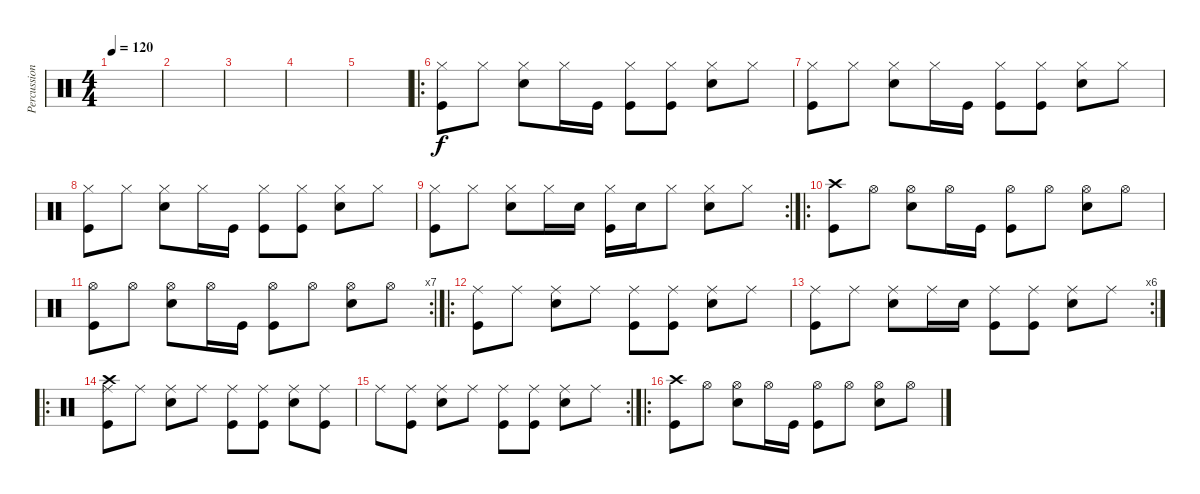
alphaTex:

\track ("Percussions" "Percussion") {instrument percussion}
\staff {score}
\articulation defaults
\ts (4 4)
\tempo 120
\clef neutral
\ks c
|
|
|
|
|
\ro
("Hi-Hat (closed)" "Kick (hit)").8 "Hi-Hat (closed)".8 ("Hi-Hat (closed)" "Electric Snare (hit)").8 "Hi-Hat (closed)".16 "Kick (hit)".16 ("Hi-Hat (closed)" "Kick (hit)").8 ("Hi-Hat (closed)" "Kick (hit)").8 ("Hi-Hat (closed)" "Electric Snare (hit)").8 "Hi-Hat (closed)".8 |
("Hi-Hat (closed)" "Kick (hit)").8 "Hi-Hat (closed)".8 ("Hi-Hat (closed)" "Electric Snare (hit)").8 "Hi-Hat (closed)".16 "Kick (hit)".16 ("Hi-Hat (closed)" "Kick (hit)").8 ("Hi-Hat (closed)" "Kick (hit)").8 ("Hi-Hat (closed)" "Electric Snare (hit)").8 "Hi-Hat (closed)".8 |
("Hi-Hat (closed)" "Kick (hit)").8 "Hi-Hat (closed)".8 ("Hi-Hat (closed)" "Electric Snare (hit)").8 "Hi-Hat (closed)".16 "Kick (hit)".16 ("Hi-Hat (closed)" "Kick (hit)").8 ("Hi-Hat (closed)" "Kick (hit)").8 ("Hi-Hat (closed)" "Electric Snare (hit)").8 "Hi-Hat (closed)".8 |
\rc 2
("Hi-Hat (closed)" "Kick (hit)").8 "Hi-Hat (closed)".8 ("Hi-Hat (closed)" "Electric Snare (hit)").8 "Hi-Hat (closed)".16 "Electric Snare (hit)".16 ("Hi-Hat (closed)" "Kick (hit)").16 "Electric Snare (hit)".16 "Hi-Hat (closed)".8 ("Hi-Hat (closed)" "Electric Snare (hit)").8 "Hi-Hat (closed)".8 |
\ro
("Crash high (hit)" "Kick (hit)").8 "Hi-Hat (open)".8 ("Hi-Hat (open)" "Electric Snare (hit)").8 "Hi-Hat (open)".16 "Kick (hit)".16 ("Hi-Hat (open)" "Kick (hit)").8 "Hi-Hat (open)".8 ("Hi-Hat (open)" "Electric Snare (hit)").8 "Hi-Hat (open)".8 |
\rc 7
("Hi-Hat (open)" "Kick (hit)").8 "Hi-Hat (open)".8 ("Hi-Hat (open)" "Electric Snare (hit)").8 "Hi-Hat (open)".16 "Kick (hit)".16 ("Hi-Hat (open)" "Kick (hit)").8 "Hi-Hat (open)".8 ("Hi-Hat (open)" "Electric Snare (hit)").8 "Hi-Hat (open)".8 |
\ro
("Kick (hit)" "Ride (middle)").8 "Ride (middle)".8 ("Electric Snare (hit)" "Ride (middle)").8 "Ride (middle)".8 ("Kick (hit)" "Ride (middle)").8 ("Kick (hit)" "Ride (middle)").8 ("Electric Snare (hit)" "Ride (middle)").8 "Ride (middle)".8 |
\rc 6
("Kick (hit)" "Ride (middle)").8 "Ride (middle)".8 ("Electric Snare (hit)" "Ride (middle)").8 "Ride (middle)".16 "Electric Snare (hit)".16 ("Kick (hit)" "Ride (middle)").8 ("Kick (hit)" "Ride (middle)").8 ("Electric Snare (hit)" "Ride (middle)").8 "Ride (middle)".8 |
\ro
("Crash high (hit)" "Kick (hit)" "Ride (middle)").8 "Ride (middle)".8 ("Electric Snare (hit)" "Ride (middle)").8 "Ride (middle)".8 ("Kick (hit)" "Ride (middle)").8 ("Kick (hit)" "Ride (middle)").8 ("Electric Snare (hit)" "Ride (middle)").8 ("Kick (hit)" "Ride (middle)").8 |
\rc 2 "Ride (middle)".8
("Kick (hit)" "Ride (middle)").8 ("Electric Snare (hit)" "Ride (middle)").8 "Ride (middle)".8 ("Kick (hit)" "Ride (middle)").8 ("Kick (hit)" "Ride (middle)").8 ("Electric Snare (hit)" "Ride (middle)").8 "Ride (middle)".8 |
\ro
("Crash high (hit)" "Kick (hit)").8 "Hi-Hat (open)".8 ("Hi-Hat (open)" "Electric Snare (hit)").8 "Hi-Hat (open)".16 "Kick (hit)".16 ("Hi-Hat (open)" "Kick (hit)").8 "Hi-Hat (open)".8 ("Hi-Hat (open)" "Electric Snare (hit)").8 "Hi-Hat (open)".8
